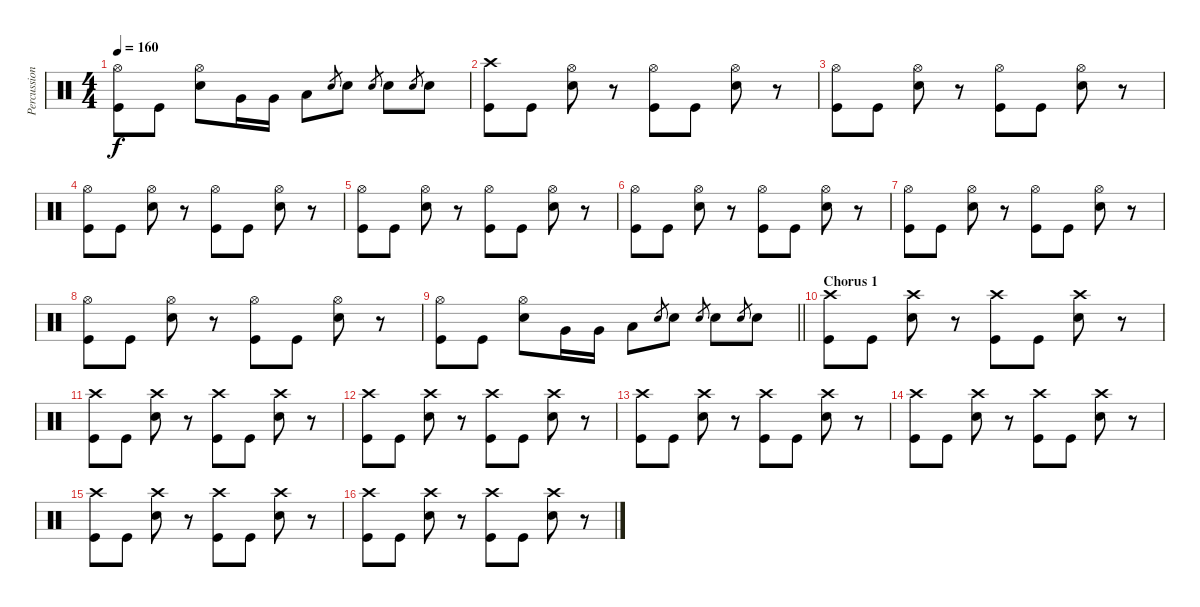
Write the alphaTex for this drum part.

\track ("Percussion" "Percussion") {instrument percussion}
\staff {score}
\articulation defaults
\ts (4 4)
\tempo 160
\clef neutral
\ks c
("Hi-Hat (open)" "Kick (hit)").8{dy f} "Kick (hit)".8 ("Hi-Hat (open)" "Electric Snare (hit)").8 "Very Low Tom (hit)".16 "Very Low Tom (hit)".16 "Low Floor Tom (hit)".8 "Electric Snare (hit)".8{gr} "Electric Snare (hit)".8 "Electric Snare (hit)".8{gr} "Electric Snare (hit)".8 "Electric Snare (hit)".8{gr} "Electric Snare (hit)".8 |
("Crash high (hit)" "Kick (hit)").8 "Kick (hit)".8 ("Hi-Hat (open)" "Electric Snare (hit)").8 r.8 ("Hi-Hat (open)" "Kick (hit)").8 "Kick (hit)".8 ("Hi-Hat (open)" "Electric Snare (hit)").8 r.8 |
("Hi-Hat (open)" "Kick (hit)").8 "Kick (hit)".8 ("Hi-Hat (open)" "Electric Snare (hit)").8 r.8 ("Hi-Hat (open)" "Kick (hit)").8 "Kick (hit)".8 ("Hi-Hat (open)" "Electric Snare (hit)").8 r.8 |
("Hi-Hat (open)" "Kick (hit)").8 "Kick (hit)".8 ("Hi-Hat (open)" "Electric Snare (hit)").8 r.8 ("Hi-Hat (open)" "Kick (hit)").8 "Kick (hit)".8 ("Hi-Hat (open)" "Electric Snare (hit)").8 r.8 |
("Hi-Hat (open)" "Kick (hit)").8 "Kick (hit)".8 ("Hi-Hat (open)" "Electric Snare (hit)").8 r.8 ("Hi-Hat (open)" "Kick (hit)").8 "Kick (hit)".8 ("Hi-Hat (open)" "Electric Snare (hit)").8 r.8 |
("Hi-Hat (open)" "Kick (hit)").8 "Kick (hit)".8 ("Hi-Hat (open)" "Electric Snare (hit)").8 r.8 ("Hi-Hat (open)" "Kick (hit)").8 "Kick (hit)".8 ("Hi-Hat (open)" "Electric Snare (hit)").8 r.8 |
("Hi-Hat (open)" "Kick (hit)").8 "Kick (hit)".8 ("Hi-Hat (open)" "Electric Snare (hit)").8 r.8 ("Hi-Hat (open)" "Kick (hit)").8 "Kick (hit)".8 ("Hi-Hat (open)" "Electric Snare (hit)").8 r.8 |
("Hi-Hat (open)" "Kick (hit)").8 "Kick (hit)".8 ("Hi-Hat (open)" "Electric Snare (hit)").8 r.8 ("Hi-Hat (open)" "Kick (hit)").8 "Kick (hit)".8 ("Hi-Hat (open)" "Electric Snare (hit)").8 r.8 |
\barLineRight lightlight
("Hi-Hat (open)" "Kick (hit)").8 "Kick (hit)".8 ("Hi-Hat (open)" "Electric Snare (hit)").8 "Very Low Tom (hit)".16 "Very Low Tom (hit)".16 "Low Floor Tom (hit)".8 "Electric Snare (hit)".8{gr} "Electric Snare (hit)".8 "Electric Snare (hit)".8{gr} "Electric Snare (hit)".8 "Electric Snare (hit)".8{gr} "Electric Snare (hit)".8 |
\section ("" "Chorus 1")
("Crash high (hit)" "Kick (hit)").8 "Kick (hit)".8 ("Crash high (hit)" "Electric Snare (hit)").8 r.8 ("Crash high (hit)" "Kick (hit)").8 "Kick (hit)".8 ("Crash high (hit)" "Electric Snare (hit)").8 r.8 |
("Crash high (hit)" "Kick (hit)").8 "Kick (hit)".8 ("Crash high (hit)" "Electric Snare (hit)").8 r.8 ("Crash high (hit)" "Kick (hit)").8 "Kick (hit)".8 ("Crash high (hit)" "Electric Snare (hit)").8 r.8 |
("Crash high (hit)" "Kick (hit)").8 "Kick (hit)".8 ("Crash high (hit)" "Electric Snare (hit)").8 r.8 ("Crash high (hit)" "Kick (hit)").8 "Kick (hit)".8 ("Crash high (hit)" "Electric Snare (hit)").8 r.8 |
("Crash high (hit)" "Kick (hit)").8 "Kick (hit)".8 ("Crash high (hit)" "Electric Snare (hit)").8 r.8 ("Crash high (hit)" "Kick (hit)").8 "Kick (hit)".8 ("Crash high (hit)" "Electric Snare (hit)").8 r.8 |
("Crash high (hit)" "Kick (hit)").8 "Kick (hit)".8 ("Crash high (hit)" "Electric Snare (hit)").8 r.8 ("Crash high (hit)" "Kick (hit)").8 "Kick (hit)".8 ("Crash high (hit)" "Electric Snare (hit)").8 r.8 |
("Crash high (hit)" "Kick (hit)").8 "Kick (hit)".8 ("Crash high (hit)" "Electric Snare (hit)").8 r.8 ("Crash high (hit)" "Kick (hit)").8 "Kick (hit)".8 ("Crash high (hit)" "Electric Snare (hit)").8 r.8 |
("Crash high (hit)" "Kick (hit)").8 "Kick (hit)".8 ("Crash high (hit)" "Electric Snare (hit)").8 r.8 ("Crash high (hit)" "Kick (hit)").8 "Kick (hit)".8 ("Crash high (hit)" "Electric Snare (hit)").8 r.8
